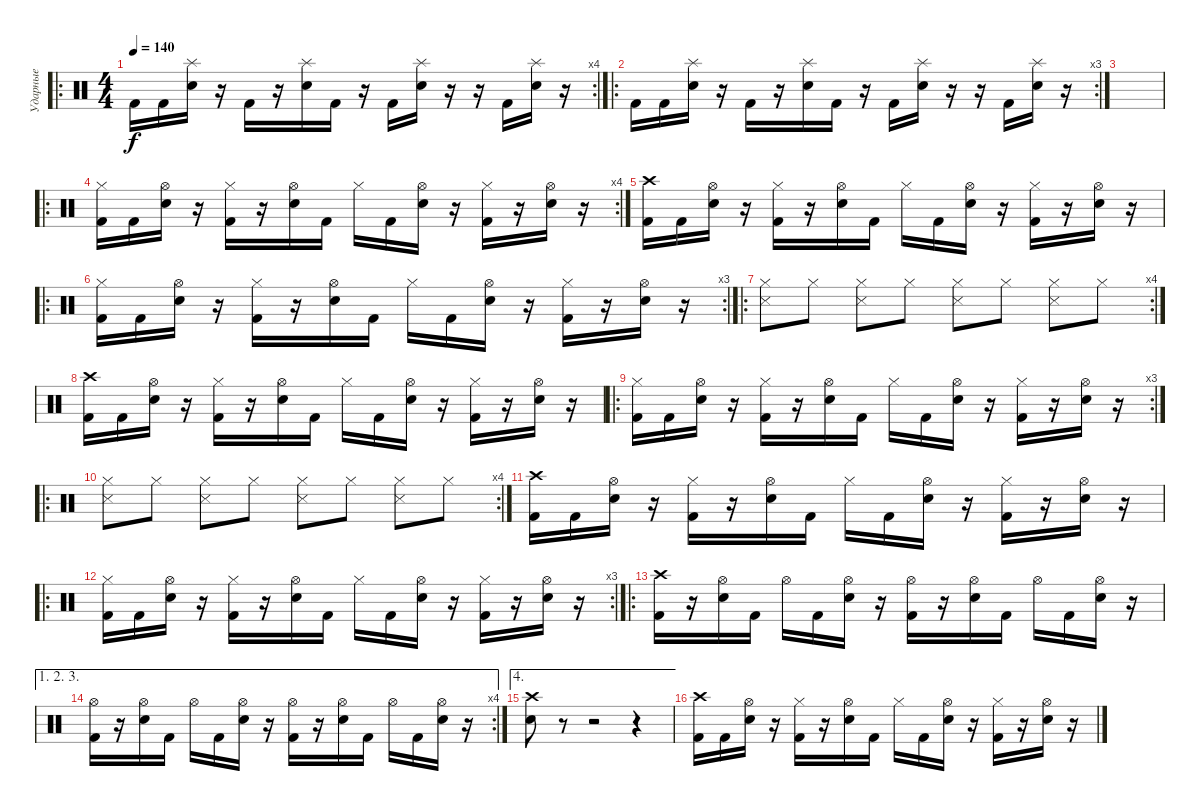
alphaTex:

\track ("Ударные" "Ударные") {instrument percussion}
\staff {score}
\articulation defaults
\ro
\rc 4
\ts (4 4)
\tempo 140
\clef neutral
\ks c "Kick (hit) 2".16{dy f} "Kick (hit) 2".16
("Splash (hit)" "Electric Snare (hit)").16 r.16 "Kick (hit) 2".16 r.16 ("Splash (hit)" "Electric Snare (hit)").16 "Kick (hit) 2".16 r.16 "Kick (hit) 2".16 ("Splash (hit)" "Electric Snare (hit)").16 r.16 r.16 "Kick (hit) 2".16 ("Splash (hit)" "Electric Snare (hit)").16 r.16 |
\ro
\rc 3 "Kick (hit) 2".16 "Kick (hit) 2".16
("Splash (hit)" "Electric Snare (hit)").16 r.16 "Kick (hit) 2".16 r.16 ("Splash (hit)" "Electric Snare (hit)").16 "Kick (hit) 2".16 r.16 "Kick (hit) 2".16 ("Splash (hit)" "Electric Snare (hit)").16 r.16 r.16 "Kick (hit) 2".16 ("Splash (hit)" "Electric Snare (hit)").16 r.16 |
|
\ro
\rc 4
("Hi-Hat (closed)" "Kick (hit) 2").16 "Kick (hit) 2".16 ("Hi-Hat (open)" "Electric Snare (hit)").16 r.16 ("Hi-Hat (closed)" "Kick (hit) 2").16 r.16 ("Hi-Hat (open)" "Electric Snare (hit)").16 "Kick (hit) 2".16 "Hi-Hat (closed)".16 "Kick (hit) 2".16 ("Hi-Hat (open)" "Electric Snare (hit)").16 r.16 ("Hi-Hat (closed)" "Kick (hit) 2").16 r.16 ("Hi-Hat (open)" "Electric Snare (hit)").16 r.16 |
("Crash high (hit)" "Kick (hit) 2").16 "Kick (hit) 2".16 ("Hi-Hat (open)" "Electric Snare (hit)").16 r.16 ("Hi-Hat (closed)" "Kick (hit) 2").16 r.16 ("Hi-Hat (open)" "Electric Snare (hit)").16 "Kick (hit) 2".16 "Hi-Hat (closed)".16 "Kick (hit) 2".16 ("Hi-Hat (open)" "Electric Snare (hit)").16 r.16 ("Hi-Hat (closed)" "Kick (hit) 2").16 r.16 ("Hi-Hat (open)" "Electric Snare (hit)").16 r.16 |
\ro
\rc 3
("Hi-Hat (closed)" "Kick (hit) 2").16 "Kick (hit) 2".16 ("Hi-Hat (open)" "Electric Snare (hit)").16 r.16 ("Hi-Hat (closed)" "Kick (hit) 2").16 r.16 ("Hi-Hat (open)" "Electric Snare (hit)").16 "Kick (hit) 2".16 "Hi-Hat (closed)".16 "Kick (hit) 2".16 ("Hi-Hat (open)" "Electric Snare (hit)").16 r.16 ("Hi-Hat (closed)" "Kick (hit) 2").16 r.16 ("Hi-Hat (open)" "Electric Snare (hit)").16 r.16 |
\ro
\rc 4
("Hi-Hat (closed)" "Snare (side stick) 3").8 "Hi-Hat (closed)".8 ("Hi-Hat (closed)" "Snare (side stick) 3").8 "Hi-Hat (closed)".8 ("Hi-Hat (closed)" "Snare (side stick) 3").8 "Hi-Hat (closed)".8 ("Hi-Hat (closed)" "Snare (side stick) 3").8 "Hi-Hat (closed)".8 |
("Crash high (hit)" "Kick (hit) 2").16 "Kick (hit) 2".16 ("Hi-Hat (open)" "Electric Snare (hit)").16 r.16 ("Hi-Hat (closed)" "Kick (hit) 2").16 r.16 ("Hi-Hat (open)" "Electric Snare (hit)").16 "Kick (hit) 2".16 "Hi-Hat (closed)".16 "Kick (hit) 2".16 ("Hi-Hat (open)" "Electric Snare (hit)").16 r.16 ("Hi-Hat (closed)" "Kick (hit) 2").16 r.16 ("Hi-Hat (open)" "Electric Snare (hit)").16 r.16 |
\ro
\rc 3
("Hi-Hat (closed)" "Kick (hit) 2").16 "Kick (hit) 2".16 ("Hi-Hat (open)" "Electric Snare (hit)").16 r.16 ("Hi-Hat (closed)" "Kick (hit) 2").16 r.16 ("Hi-Hat (open)" "Electric Snare (hit)").16 "Kick (hit) 2".16 "Hi-Hat (closed)".16 "Kick (hit) 2".16 ("Hi-Hat (open)" "Electric Snare (hit)").16 r.16 ("Hi-Hat (closed)" "Kick (hit) 2").16 r.16 ("Hi-Hat (open)" "Electric Snare (hit)").16 r.16 |
\ro
\rc 4
("Hi-Hat (closed)" "Snare (side stick) 3").8 "Hi-Hat (closed)".8 ("Hi-Hat (closed)" "Snare (side stick) 3").8 "Hi-Hat (closed)".8 ("Hi-Hat (closed)" "Snare (side stick) 3").8 "Hi-Hat (closed)".8 ("Hi-Hat (closed)" "Snare (side stick) 3").8 "Hi-Hat (closed)".8 |
("Crash high (hit)" "Kick (hit) 2").16 "Kick (hit) 2".16 ("Hi-Hat (open)" "Electric Snare (hit)").16 r.16 ("Hi-Hat (closed)" "Kick (hit) 2").16 r.16 ("Hi-Hat (open)" "Electric Snare (hit)").16 "Kick (hit) 2".16 "Hi-Hat (closed)".16 "Kick (hit) 2".16 ("Hi-Hat (open)" "Electric Snare (hit)").16 r.16 ("Hi-Hat (closed)" "Kick (hit) 2").16 r.16 ("Hi-Hat (open)" "Electric Snare (hit)").16 r.16 |
\ro
\rc 3
("Hi-Hat (closed)" "Kick (hit) 2").16 "Kick (hit) 2".16 ("Hi-Hat (open)" "Electric Snare (hit)").16 r.16 ("Hi-Hat (closed)" "Kick (hit) 2").16 r.16 ("Hi-Hat (open)" "Electric Snare (hit)").16 "Kick (hit) 2".16 "Hi-Hat (closed)".16 "Kick (hit) 2".16 ("Hi-Hat (open)" "Electric Snare (hit)").16 r.16 ("Hi-Hat (closed)" "Kick (hit) 2").16 r.16 ("Hi-Hat (open)" "Electric Snare (hit)").16 r.16 |
\ro
("Crash high (hit)" "Kick (hit) 2").16 r.16 ("Hi-Hat (open)" "Electric Snare (hit)").16 "Kick (hit) 2".16 "Hi-Hat (open)".16 "Kick (hit) 2".16 ("Hi-Hat (open)" "Electric Snare (hit)").16 r.16 ("Hi-Hat (open)" "Kick (hit) 2").16 r.16 ("Hi-Hat (open)" "Electric Snare (hit)").16 "Kick (hit) 2".16 "Hi-Hat (open)".16 "Kick (hit) 2".16 ("Hi-Hat (open)" "Electric Snare (hit)").16 r.16 |
\ae (1 2 3)
\rc 4
("Hi-Hat (open)" "Kick (hit) 2").16 r.16 ("Hi-Hat (open)" "Electric Snare (hit)").16 "Kick (hit) 2".16 "Hi-Hat (open)".16 "Kick (hit) 2".16 ("Hi-Hat (open)" "Electric Snare (hit)").16 r.16 ("Hi-Hat (open)" "Kick (hit) 2").16 r.16 ("Hi-Hat (open)" "Electric Snare (hit)").16 "Kick (hit) 2".16 "Hi-Hat (open)".16 "Kick (hit) 2".16 ("Hi-Hat (open)" "Electric Snare (hit)").16 r.16 |
\ae 4
("Crash high (hit)" "Electric Snare (hit)").8 r.8 r.2 r.4 |
("Crash high (hit)" "Kick (hit) 2").16 "Kick (hit) 2".16 ("Hi-Hat (open)" "Electric Snare (hit)").16 r.16 ("Hi-Hat (closed)" "Kick (hit) 2").16 r.16 ("Hi-Hat (open)" "Electric Snare (hit)").16 "Kick (hit) 2".16 "Hi-Hat (closed)".16 "Kick (hit) 2".16 ("Hi-Hat (open)" "Electric Snare (hit)").16 r.16 ("Hi-Hat (closed)" "Kick (hit) 2").16 r.16 ("Hi-Hat (open)" "Electric Snare (hit)").16 r.16
